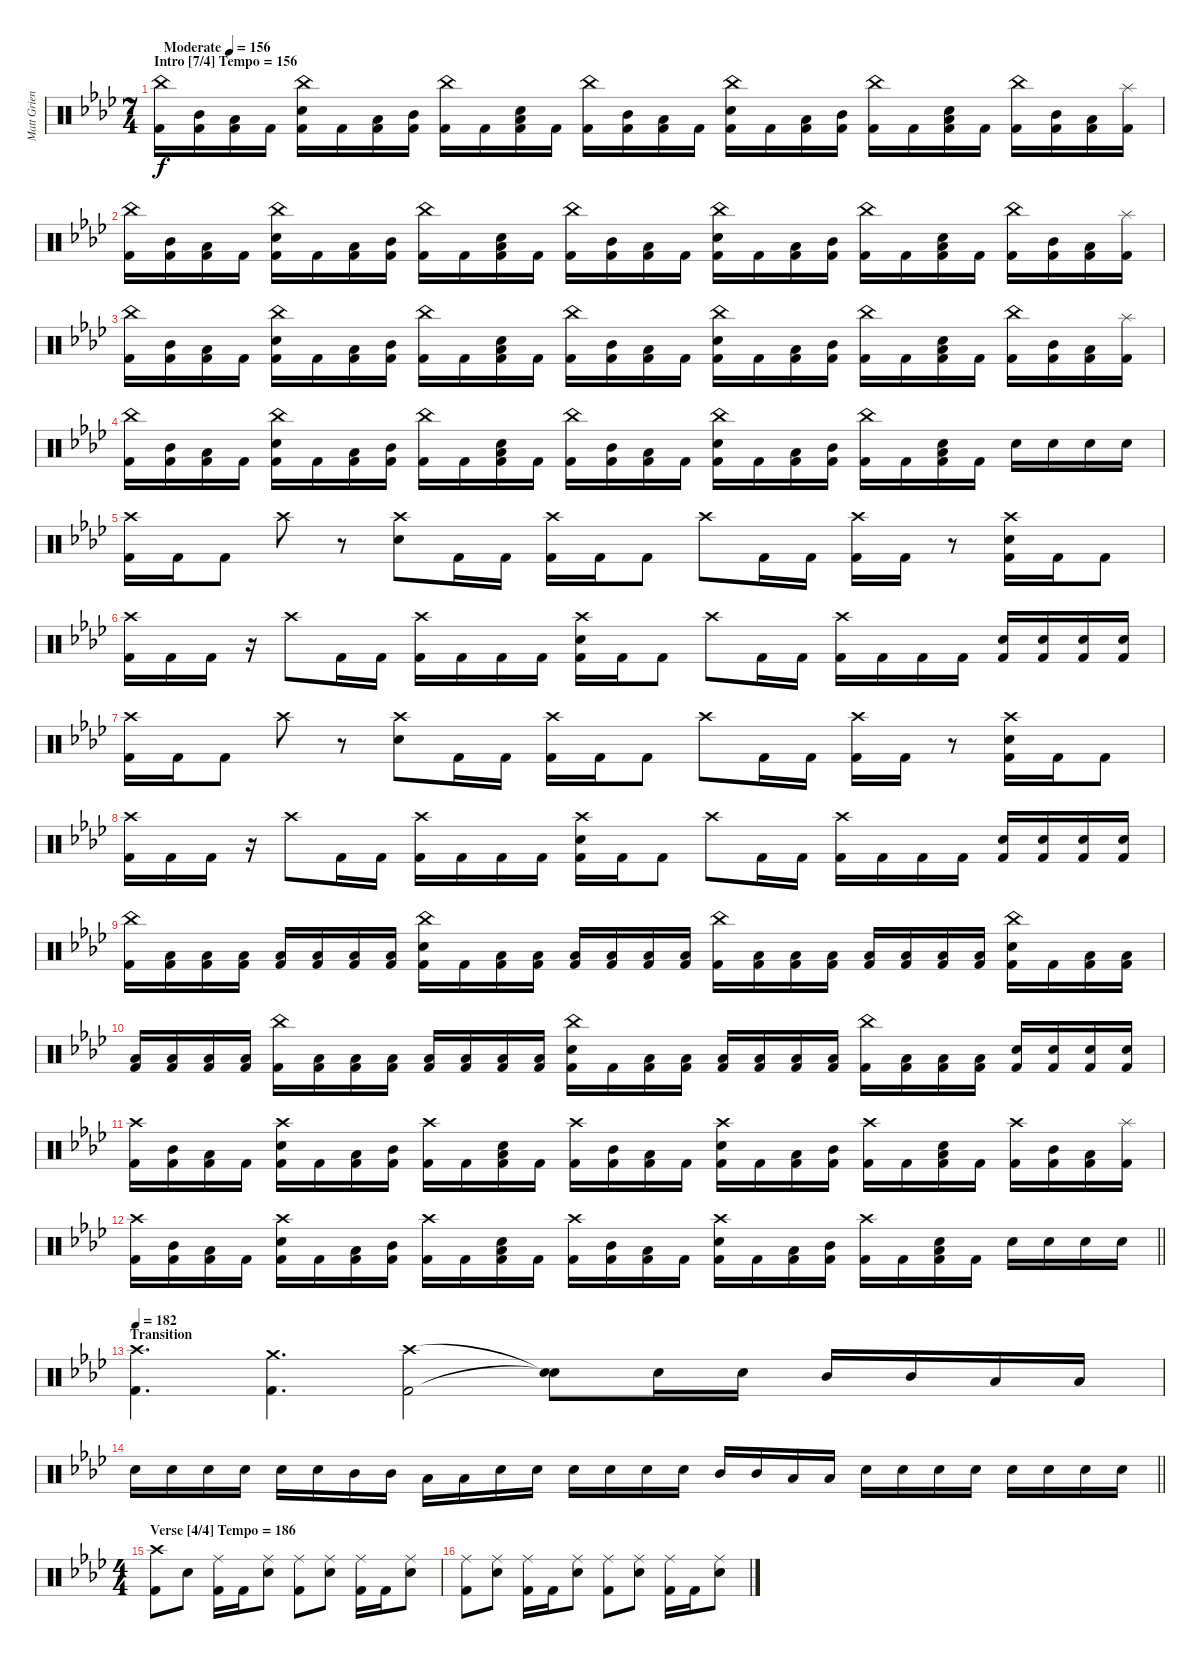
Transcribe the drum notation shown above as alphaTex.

\track ("Matt Griener [Drum Kit]" "Matt Grien") {instrument percussion}
\staff {score}
\articulation defaults
\ts (7 4)
\section ("" "Intro [7/4] Tempo = 156")
\tempo (156 "Moderate")
\clef neutral
\ks fminor
("China (hit)" "Kick (hit) 2").16{dy f} ("Mid Tom (hit)" "Kick (hit) 2").16 ("Low Floor Tom (hit)" "Kick (hit) 2").16 "Kick (hit) 2".16 ("China (hit)" "Electric Snare (hit)" "Kick (hit) 2").16 "Kick (hit) 2".16 ("Low Floor Tom (hit)" "Kick (hit) 2").16 ("Mid Tom (hit)" "Kick (hit) 2").16 ("China (hit)" "Kick (hit) 2").16 "Kick (hit) 2".16 ("Electric Snare (hit)" "Low Floor Tom (hit)" "Kick (hit) 2").16 "Kick (hit) 2".16 ("China (hit)" "Kick (hit) 2").16 ("Mid Tom (hit)" "Kick (hit) 2").16 ("Low Floor Tom (hit)" "Kick (hit) 2").16 "Kick (hit) 2".16 ("China (hit)" "Electric Snare (hit)" "Kick (hit) 2").16 "Kick (hit) 2".16 ("Low Floor Tom (hit)" "Kick (hit) 2").16 ("Mid Tom (hit)" "Kick (hit) 2").16 ("China (hit)" "Kick (hit) 2").16 "Kick (hit) 2".16 ("Electric Snare (hit)" "Low Floor Tom (hit)" "Kick (hit) 2").16 "Kick (hit) 2".16 ("China (hit)" "Kick (hit) 2").16 ("Mid Tom (hit)" "Kick (hit) 2").16 ("Low Floor Tom (hit)" "Kick (hit) 2").16 ("Splash (hit)" "Kick (hit) 2").16 |
("China (hit)" "Kick (hit) 2").16 ("Mid Tom (hit)" "Kick (hit) 2").16 ("Low Floor Tom (hit)" "Kick (hit) 2").16 "Kick (hit) 2".16 ("China (hit)" "Electric Snare (hit)" "Kick (hit) 2").16 "Kick (hit) 2".16 ("Low Floor Tom (hit)" "Kick (hit) 2").16 ("Mid Tom (hit)" "Kick (hit) 2").16 ("China (hit)" "Kick (hit) 2").16 "Kick (hit) 2".16 ("Electric Snare (hit)" "Low Floor Tom (hit)" "Kick (hit) 2").16 "Kick (hit) 2".16 ("China (hit)" "Kick (hit) 2").16 ("Mid Tom (hit)" "Kick (hit) 2").16 ("Low Floor Tom (hit)" "Kick (hit) 2").16 "Kick (hit) 2".16 ("China (hit)" "Electric Snare (hit)" "Kick (hit) 2").16 "Kick (hit) 2".16 ("Low Floor Tom (hit)" "Kick (hit) 2").16 ("Mid Tom (hit)" "Kick (hit) 2").16 ("China (hit)" "Kick (hit) 2").16 "Kick (hit) 2".16 ("Electric Snare (hit)" "Low Floor Tom (hit)" "Kick (hit) 2").16 "Kick (hit) 2".16 ("China (hit)" "Kick (hit) 2").16 ("Mid Tom (hit)" "Kick (hit) 2").16 ("Low Floor Tom (hit)" "Kick (hit) 2").16 ("Splash (hit)" "Kick (hit) 2").16 |
("China (hit)" "Kick (hit) 2").16 ("Mid Tom (hit)" "Kick (hit) 2").16 ("Low Floor Tom (hit)" "Kick (hit) 2").16 "Kick (hit) 2".16 ("China (hit)" "Electric Snare (hit)" "Kick (hit) 2").16 "Kick (hit) 2".16 ("Low Floor Tom (hit)" "Kick (hit) 2").16 ("Mid Tom (hit)" "Kick (hit) 2").16 ("China (hit)" "Kick (hit) 2").16 "Kick (hit) 2".16 ("Electric Snare (hit)" "Low Floor Tom (hit)" "Kick (hit) 2").16 "Kick (hit) 2".16 ("China (hit)" "Kick (hit) 2").16 ("Mid Tom (hit)" "Kick (hit) 2").16 ("Low Floor Tom (hit)" "Kick (hit) 2").16 "Kick (hit) 2".16 ("China (hit)" "Electric Snare (hit)" "Kick (hit) 2").16 "Kick (hit) 2".16 ("Low Floor Tom (hit)" "Kick (hit) 2").16 ("Mid Tom (hit)" "Kick (hit) 2").16 ("China (hit)" "Kick (hit) 2").16 "Kick (hit) 2".16 ("Electric Snare (hit)" "Low Floor Tom (hit)" "Kick (hit) 2").16 "Kick (hit) 2".16 ("China (hit)" "Kick (hit) 2").16 ("Mid Tom (hit)" "Kick (hit) 2").16 ("Low Floor Tom (hit)" "Kick (hit) 2").16 ("Splash (hit)" "Kick (hit) 2").16 |
("China (hit)" "Kick (hit) 2").16 ("Mid Tom (hit)" "Kick (hit) 2").16 ("Low Floor Tom (hit)" "Kick (hit) 2").16 "Kick (hit) 2".16 ("China (hit)" "Electric Snare (hit)" "Kick (hit) 2").16 "Kick (hit) 2".16 ("Low Floor Tom (hit)" "Kick (hit) 2").16 ("Mid Tom (hit)" "Kick (hit) 2").16 ("China (hit)" "Kick (hit) 2").16 "Kick (hit) 2".16 ("Electric Snare (hit)" "Low Floor Tom (hit)" "Kick (hit) 2").16 "Kick (hit) 2".16 ("China (hit)" "Kick (hit) 2").16 ("Mid Tom (hit)" "Kick (hit) 2").16 ("Low Floor Tom (hit)" "Kick (hit) 2").16 "Kick (hit) 2".16 ("China (hit)" "Electric Snare (hit)" "Kick (hit) 2").16 "Kick (hit) 2".16 ("Low Floor Tom (hit)" "Kick (hit) 2").16 ("Mid Tom (hit)" "Kick (hit) 2").16 ("China (hit)" "Kick (hit) 2").16 "Kick (hit) 2".16 ("Electric Snare (hit)" "Low Floor Tom (hit)" "Kick (hit) 2").16 "Kick (hit) 2".16 "Electric Snare (hit)".16 "Electric Snare (hit)".16 "Electric Snare (hit)".16 "Electric Snare (hit)".16 |
("Crash high (hit)" "Kick (hit) 2").16 "Kick (hit) 2".16 "Kick (hit) 2".8 "Crash high (hit)".8 r.8 ("Crash high (hit)" "Electric Snare (hit)").8 "Kick (hit) 2".16 "Kick (hit) 2".16 ("Crash high (hit)" "Kick (hit) 2").16 "Kick (hit) 2".16 "Kick (hit) 2".8 "Crash high (hit)".8 "Kick (hit) 2".16 "Kick (hit) 2".16 ("Crash high (hit)" "Kick (hit) 2").16 "Kick (hit) 2".16 r.8 ("Crash high (hit)" "Electric Snare (hit)" "Kick (hit) 2").16 "Kick (hit) 2".16 "Kick (hit) 2".8 |
("Crash high (hit)" "Kick (hit) 2").16 "Kick (hit) 2".16 "Kick (hit) 2".16 r.16 "Crash high (hit)".8 "Kick (hit) 2".16 "Kick (hit) 2".16 ("Crash high (hit)" "Kick (hit) 2").16 "Kick (hit) 2".16 "Kick (hit) 2".16 "Kick (hit) 2".16 ("Crash high (hit)" "Electric Snare (hit)" "Kick (hit) 2").16 "Kick (hit) 2".16 "Kick (hit) 2".8 "Crash high (hit)".8 "Kick (hit) 2".16 "Kick (hit) 2".16 ("Crash high (hit)" "Kick (hit) 2").16 "Kick (hit) 2".16 "Kick (hit) 2".16 "Kick (hit) 2".16 ("Electric Snare (hit)" "Kick (hit) 2").16 ("Electric Snare (hit)" "Kick (hit) 2").16 ("Electric Snare (hit)" "Kick (hit) 2").16 ("Electric Snare (hit)" "Kick (hit) 2").16 |
("Crash high (hit)" "Kick (hit) 2").16 "Kick (hit) 2".16 "Kick (hit) 2".8 "Crash high (hit)".8 r.8 ("Crash high (hit)" "Electric Snare (hit)").8 "Kick (hit) 2".16 "Kick (hit) 2".16 ("Crash high (hit)" "Kick (hit) 2").16 "Kick (hit) 2".16 "Kick (hit) 2".8 "Crash high (hit)".8 "Kick (hit) 2".16 "Kick (hit) 2".16 ("Crash high (hit)" "Kick (hit) 2").16 "Kick (hit) 2".16 r.8 ("Crash high (hit)" "Electric Snare (hit)" "Kick (hit) 2").16 "Kick (hit) 2".16 "Kick (hit) 2".8 |
("Crash high (hit)" "Kick (hit) 2").16 "Kick (hit) 2".16 "Kick (hit) 2".16 r.16 "Crash high (hit)".8 "Kick (hit) 2".16 "Kick (hit) 2".16 ("Crash high (hit)" "Kick (hit) 2").16 "Kick (hit) 2".16 "Kick (hit) 2".16 "Kick (hit) 2".16 ("Crash high (hit)" "Electric Snare (hit)" "Kick (hit) 2").16 "Kick (hit) 2".16 "Kick (hit) 2".8 "Crash high (hit)".8 "Kick (hit) 2".16 "Kick (hit) 2".16 ("Crash high (hit)" "Kick (hit) 2").16 "Kick (hit) 2".16 "Kick (hit) 2".16 "Kick (hit) 2".16 ("Electric Snare (hit)" "Kick (hit) 2").16 ("Electric Snare (hit)" "Kick (hit) 2").16 ("Electric Snare (hit)" "Kick (hit) 2").16 ("Electric Snare (hit)" "Kick (hit) 2").16 |
("China (hit)" "Kick (hit) 2").16 ("Low Floor Tom (hit)" "Kick (hit) 2").16 ("Low Floor Tom (hit)" "Kick (hit) 2").16 ("Low Floor Tom (hit)" "Kick (hit) 2").16 ("Low Floor Tom (hit)" "Kick (hit) 2").16 ("Low Floor Tom (hit)" "Kick (hit) 2").16 ("Low Floor Tom (hit)" "Kick (hit) 2").16 ("Low Floor Tom (hit)" "Kick (hit) 2").16 ("China (hit)" "Electric Snare (hit)" "Kick (hit) 2").16 "Kick (hit) 2".16 ("Low Floor Tom (hit)" "Kick (hit) 2").16 ("Low Floor Tom (hit)" "Kick (hit) 2").16 ("Low Floor Tom (hit)" "Kick (hit) 2").16 ("Low Floor Tom (hit)" "Kick (hit) 2").16 ("Low Floor Tom (hit)" "Kick (hit) 2").16 ("Low Floor Tom (hit)" "Kick (hit) 2").16 ("China (hit)" "Kick (hit) 2").16 ("Low Floor Tom (hit)" "Kick (hit) 2").16 ("Low Floor Tom (hit)" "Kick (hit) 2").16 ("Low Floor Tom (hit)" "Kick (hit) 2").16 ("Low Floor Tom (hit)" "Kick (hit) 2").16 ("Low Floor Tom (hit)" "Kick (hit) 2").16 ("Low Floor Tom (hit)" "Kick (hit) 2").16 ("Low Floor Tom (hit)" "Kick (hit) 2").16 ("China (hit)" "Electric Snare (hit)" "Kick (hit) 2").16 "Kick (hit) 2".16 ("Low Floor Tom (hit)" "Kick (hit) 2").16 ("Low Floor Tom (hit)" "Kick (hit) 2").16 |
("Low Floor Tom (hit)" "Kick (hit) 2").16 ("Low Floor Tom (hit)" "Kick (hit) 2").16 ("Low Floor Tom (hit)" "Kick (hit) 2").16 ("Low Floor Tom (hit)" "Kick (hit) 2").16 ("China (hit)" "Kick (hit) 2").16 ("Low Floor Tom (hit)" "Kick (hit) 2").16 ("Low Floor Tom (hit)" "Kick (hit) 2").16 ("Low Floor Tom (hit)" "Kick (hit) 2").16 ("Low Floor Tom (hit)" "Kick (hit) 2").16 ("Low Floor Tom (hit)" "Kick (hit) 2").16 ("Low Floor Tom (hit)" "Kick (hit) 2").16 ("Low Floor Tom (hit)" "Kick (hit) 2").16 ("China (hit)" "Electric Snare (hit)" "Kick (hit) 2").16 "Kick (hit) 2".16 ("Low Floor Tom (hit)" "Kick (hit) 2").16 ("Low Floor Tom (hit)" "Kick (hit) 2").16 ("Low Floor Tom (hit)" "Kick (hit) 2").16 ("Low Floor Tom (hit)" "Kick (hit) 2").16 ("Low Floor Tom (hit)" "Kick (hit) 2").16 ("Low Floor Tom (hit)" "Kick (hit) 2").16 ("China (hit)" "Kick (hit) 2").16 ("Low Floor Tom (hit)" "Kick (hit) 2").16 ("Low Floor Tom (hit)" "Kick (hit) 2").16 ("Low Floor Tom (hit)" "Kick (hit) 2").16 ("Electric Snare (hit)" "Kick (hit) 2").16 ("Electric Snare (hit)" "Kick (hit) 2").16 ("Electric Snare (hit)" "Kick (hit) 2").16 ("Electric Snare (hit)" "Kick (hit) 2").16 |
("Crash high (hit)" "Kick (hit) 2").16 ("Mid Tom (hit)" "Kick (hit) 2").16 ("Low Tom (hit)" "Kick (hit) 2").16 "Kick (hit) 2".16 ("Crash high (hit)" "Electric Snare (hit)" "Kick (hit) 2").16 "Kick (hit) 2".16 ("Low Tom (hit)" "Kick (hit) 2").16 ("Mid Tom (hit)" "Kick (hit) 2").16 ("Crash high (hit)" "Kick (hit) 2").16 "Kick (hit) 2".16 ("Electric Snare (hit)" "Low Tom (hit)" "Kick (hit) 2").16 "Kick (hit) 2".16 ("Crash high (hit)" "Kick (hit) 2").16 ("Mid Tom (hit)" "Kick (hit) 2").16 ("Low Tom (hit)" "Kick (hit) 2").16 "Kick (hit) 2".16 ("Crash high (hit)" "Electric Snare (hit)" "Kick (hit) 2").16 "Kick (hit) 2".16 ("Low Tom (hit)" "Kick (hit) 2").16 ("Mid Tom (hit)" "Kick (hit) 2").16 ("Crash high (hit)" "Kick (hit) 2").16 "Kick (hit) 2".16 ("Electric Snare (hit)" "Low Tom (hit)" "Kick (hit) 2").16 "Kick (hit) 2".16 ("Crash high (hit)" "Kick (hit) 2").16 ("Mid Tom (hit)" "Kick (hit) 2").16 ("Low Tom (hit)" "Kick (hit) 2").16 ("Splash (hit)" "Kick (hit) 2").16 |
\barLineRight lightlight
("Crash high (hit)" "Kick (hit) 2").16 ("Mid Tom (hit)" "Kick (hit) 2").16 ("Low Tom (hit)" "Kick (hit) 2").16 "Kick (hit) 2".16 ("Crash high (hit)" "Electric Snare (hit)" "Kick (hit) 2").16 "Kick (hit) 2".16 ("Low Tom (hit)" "Kick (hit) 2").16 ("Mid Tom (hit)" "Kick (hit) 2").16 ("Crash high (hit)" "Kick (hit) 2").16 "Kick (hit) 2".16 ("Electric Snare (hit)" "Low Tom (hit)" "Kick (hit) 2").16 "Kick (hit) 2".16 ("Crash high (hit)" "Kick (hit) 2").16 ("Mid Tom (hit)" "Kick (hit) 2").16 ("Low Tom (hit)" "Kick (hit) 2").16 "Kick (hit) 2".16 ("Crash high (hit)" "Electric Snare (hit)" "Kick (hit) 2").16 "Kick (hit) 2".16 ("Low Tom (hit)" "Kick (hit) 2").16 ("Mid Tom (hit)" "Kick (hit) 2").16 ("Crash high (hit)" "Kick (hit) 2").16 "Kick (hit) 2".16 ("Electric Snare (hit)" "Low Tom (hit)" "Kick (hit) 2").16 "Kick (hit) 2".16 "Electric Snare (hit)".16 "Electric Snare (hit)".16 "Electric Snare (hit)".16 "Electric Snare (hit)".16 |
\section ("" "Transition ")
\tempo 182
("Crash high (hit)" "Kick (hit) 2").4{d} ("Crash medium (hit)" "Kick (hit) 2").4{d} ("Crash high (hit)" "Kick (hit) 2").2 ("Snare (hit)"{t} "Snare (hit)"{t}).8 "Electric Snare (hit)".16 "Electric Snare (hit)".16 "Mid Tom (hit)".16 "Mid Tom (hit)".16 "Low Floor Tom (hit)".16 "Low Floor Tom (hit)".16 |
\barLineRight lightlight "Electric Snare (hit)".16 "Electric Snare (hit)".16 "Electric Snare (hit)".16 "Electric Snare (hit)".16 "Electric Snare (hit)".16 "Electric Snare (hit)".16 "Mid Tom (hit)".16 "Mid Tom (hit)".16 "Low Floor Tom (hit)".16 "Low Floor Tom (hit)".16 "Electric Snare (hit)".16 "Electric Snare (hit)".16 "Electric Snare (hit)".16 "Electric Snare (hit)".16 "Electric Snare (hit)".16 "Electric Snare (hit)".16 "Mid Tom (hit)".16 "Mid Tom (hit)".16 "Low Floor Tom (hit)".16 "Low Floor Tom (hit)".16 "Electric Snare (hit)".16 "Electric Snare (hit)".16 "Electric Snare (hit)".16 "Electric Snare (hit)".16 "Electric Snare (hit)".16 "Electric Snare (hit)".16 "Electric Snare (hit)".16 "Electric Snare (hit)".16
|
\ts (4 4)
\section ("" "Verse [4/4] Tempo = 186")
("Crash high (hit)" "Kick (hit) 2").8 "Electric Snare (hit)".8 ("Ride (middle)" "Kick (hit) 2").16 "Kick (hit) 2".16 ("Ride (middle)" "Electric Snare (hit)").8 ("Ride (middle)" "Kick (hit) 2").8 ("Ride (middle)" "Electric Snare (hit)").8 ("Ride (middle)" "Kick (hit) 2").16 "Kick (hit) 2".16 ("Ride (middle)" "Electric Snare (hit)").8 |
("Ride (middle)" "Kick (hit) 2").8 ("Ride (middle)" "Electric Snare (hit)").8 ("Ride (middle)" "Kick (hit) 2").16 "Kick (hit) 2".16 ("Ride (middle)" "Electric Snare (hit)").8 ("Ride (middle)" "Kick (hit) 2").8 ("Ride (middle)" "Electric Snare (hit)").8 ("Ride (middle)" "Kick (hit) 2").16 "Kick (hit) 2".16 ("Ride (middle)" "Electric Snare (hit)").8
